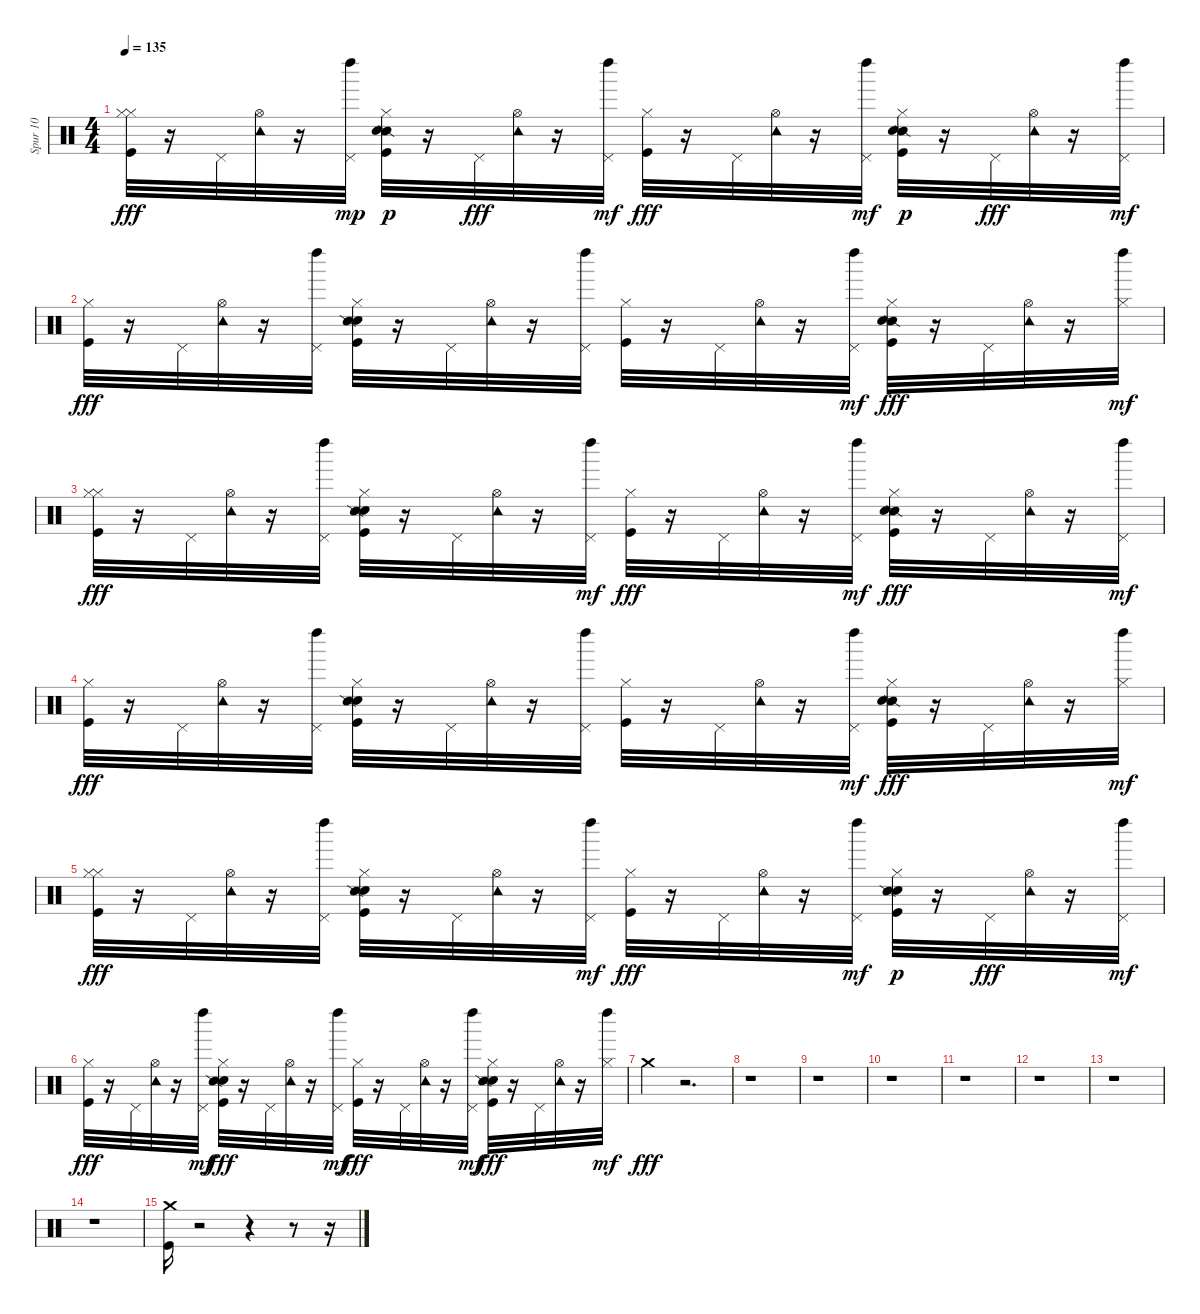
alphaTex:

\track ("Spur 10" "Spur 10") {instrument percussion}
\staff {score}
\articulation defaults
\ts (4 4)
\tempo 135
\clef neutral
\ks c
("Kick (hit)" "Hi-Hat (closed)" "Hi-Hat (closed)").32{dy fff} r.16 "Pedal Hi-Hat (hit)".32 ("Tambourine (hit)" "Hi-Hat (open)").32 r.16 ("Pedal Hi-Hat (hit)" "Left Maraca (hit)").32{dy mp} ("Hi-Hat (closed)" "Snare (side stick) 2" "Kick (hit)" "Hand Clap (hit)").32{dy p} r.16 "Pedal Hi-Hat (hit)".32{dy fff} ("Hi-Hat (open)" "Tambourine (hit)").32 r.16 ("Pedal Hi-Hat (hit)" "Left Maraca (hit)").32{dy mf} ("Kick (hit)" "Hi-Hat (closed)").32{dy fff} r.16 "Pedal Hi-Hat (hit)".32 ("Hi-Hat (open)" "Tambourine (hit)").32 r.16 ("Pedal Hi-Hat (hit)" "Left Maraca (hit)").32{dy mf} ("Hi-Hat (closed)" "Kick (hit)" "Snare (side stick) 2" "Hand Clap (hit)").32{dy p} r.16 "Pedal Hi-Hat (hit)".32{dy fff} ("Tambourine (hit)" "Hi-Hat (open)").32 r.16 ("Pedal Hi-Hat (hit)" "Left Maraca (hit)").32{dy mf} |
("Kick (hit)" "Hi-Hat (closed)").32{dy fff} r.16 "Pedal Hi-Hat (hit)".32 ("Hi-Hat (open)" "Tambourine (hit)").32 r.16 ("Left Maraca (hit)" "Pedal Hi-Hat (hit)").32 ("Kick (hit)" "Hand Clap (hit)" "Hi-Hat (closed)" "Snare (side stick) 2").32 r.16 "Pedal Hi-Hat (hit)".32 ("Tambourine (hit)" "Hi-Hat (open)").32 r.16 ("Left Maraca (hit)" "Pedal Hi-Hat (hit)").32 ("Hi-Hat (closed)" "Kick (hit)").32 r.16 "Pedal Hi-Hat (hit)".32 ("Hi-Hat (open)" "Tambourine (hit)").32 r.16 ("Pedal Hi-Hat (hit)" "Left Maraca (hit)").32{dy mf} ("Snare (side stick) 2" "Kick (hit)" "Hand Clap (hit)" "Hi-Hat (closed)").32{dy fff} r.16 "Pedal Hi-Hat (hit)".32 ("Tambourine (hit)" "Hi-Hat (open)").32 r.16 ("Hi-Hat (closed)" "Left Maraca (hit)").32{dy mf} |
("Kick (hit)" "Hi-Hat (closed)" "Hi-Hat (closed)").32{dy fff} r.16 "Pedal Hi-Hat (hit)".32 ("Hi-Hat (open)" "Tambourine (hit)").32 r.16 ("Left Maraca (hit)" "Pedal Hi-Hat (hit)").32 ("Hand Clap (hit)" "Kick (hit)" "Snare (side stick) 2" "Hi-Hat (closed)").32 r.16 "Pedal Hi-Hat (hit)".32 ("Hi-Hat (open)" "Tambourine (hit)").32 r.16 ("Pedal Hi-Hat (hit)" "Left Maraca (hit)").32{dy mf} ("Kick (hit)" "Hi-Hat (closed)").32{dy fff} r.16 "Pedal Hi-Hat (hit)".32 ("Hi-Hat (open)" "Tambourine (hit)").32 r.16 ("Pedal Hi-Hat (hit)" "Left Maraca (hit)").32{dy mf} ("Kick (hit)" "Snare (side stick) 2" "Hand Clap (hit)" "Hi-Hat (closed)").32{dy fff} r.16 "Pedal Hi-Hat (hit)".32 ("Tambourine (hit)" "Hi-Hat (open)").32 r.16 ("Pedal Hi-Hat (hit)" "Left Maraca (hit)").32{dy mf} |
("Kick (hit)" "Hi-Hat (closed)").32{dy fff} r.16 "Pedal Hi-Hat (hit)".32 ("Hi-Hat (open)" "Tambourine (hit)").32 r.16 ("Left Maraca (hit)" "Pedal Hi-Hat (hit)").32 ("Hand Clap (hit)" "Kick (hit)" "Hi-Hat (closed)" "Snare (side stick) 2").32 r.16 "Pedal Hi-Hat (hit)".32 ("Hi-Hat (open)" "Tambourine (hit)").32 r.16 ("Left Maraca (hit)" "Pedal Hi-Hat (hit)").32 ("Kick (hit)" "Hi-Hat (closed)").32 r.16 "Pedal Hi-Hat (hit)".32 ("Tambourine (hit)" "Hi-Hat (open)").32 r.16 ("Pedal Hi-Hat (hit)" "Left Maraca (hit)").32{dy mf} ("Snare (side stick) 2" "Kick (hit)" "Hand Clap (hit)" "Hi-Hat (closed)").32{dy fff} r.16 "Pedal Hi-Hat (hit)".32 ("Hi-Hat (open)" "Tambourine (hit)").32 r.16 ("Hi-Hat (closed)" "Left Maraca (hit)").32{dy mf} |
("Kick (hit)" "Hi-Hat (closed)" "Hi-Hat (closed)").32{dy fff} r.16 "Pedal Hi-Hat (hit)".32 ("Tambourine (hit)" "Hi-Hat (open)").32 r.16 ("Left Maraca (hit)" "Pedal Hi-Hat (hit)").32 ("Hand Clap (hit)" "Snare (side stick) 2" "Hi-Hat (closed)" "Kick (hit)").32 r.16 "Pedal Hi-Hat (hit)".32 ("Tambourine (hit)" "Hi-Hat (open)").32 r.16 ("Pedal Hi-Hat (hit)" "Left Maraca (hit)").32{dy mf} ("Hi-Hat (closed)" "Kick (hit)").32{dy fff} r.16 "Pedal Hi-Hat (hit)".32 ("Tambourine (hit)" "Hi-Hat (open)").32 r.16 ("Left Maraca (hit)" "Pedal Hi-Hat (hit)").32{dy mf} ("Kick (hit)" "Hi-Hat (closed)" "Hand Clap (hit)" "Snare (side stick) 2").32{dy p} r.16 "Pedal Hi-Hat (hit)".32{dy fff} ("Hi-Hat (open)" "Tambourine (hit)").32 r.16 ("Pedal Hi-Hat (hit)" "Left Maraca (hit)").32{dy mf} |
("Kick (hit)" "Hi-Hat (closed)").32{dy fff} r.16 "Pedal Hi-Hat (hit)".32 ("Hi-Hat (open)" "Tambourine (hit)").32 r.16 ("Pedal Hi-Hat (hit)" "Left Maraca (hit)").32{dy mf} ("Kick (hit)" "Hand Clap (hit)" "Hi-Hat (closed)" "Snare (side stick) 2").32{dy fff} r.16 "Pedal Hi-Hat (hit)".32 ("Hi-Hat (open)" "Tambourine (hit)").32 r.16 ("Pedal Hi-Hat (hit)" "Left Maraca (hit)").32{dy mf} ("Kick (hit)" "Hi-Hat (closed)").32{dy fff} r.16 "Pedal Hi-Hat (hit)".32 ("Hi-Hat (open)" "Tambourine (hit)").32 r.16 ("Pedal Hi-Hat (hit)" "Left Maraca (hit)").32{dy mf} ("Hand Clap (hit)" "Snare (side stick) 2" "Hi-Hat (closed)" "Kick (hit)").32{dy fff} r.16 "Pedal Hi-Hat (hit)".32 ("Hi-Hat (open)" "Tambourine (hit)").32 r.16 ("Hi-Hat (closed)" "Left Maraca (hit)").32{dy mf} |
"Crash medium (hit)".4{dy fff} r.2{d} |
r.1 |
r.1 |
r.1 |
r.1 |
r.1 |
r.1 |
r.1 |
("Kick (hit)" "Crash medium (hit)").16 r.2 r.4 r.8 r.16
